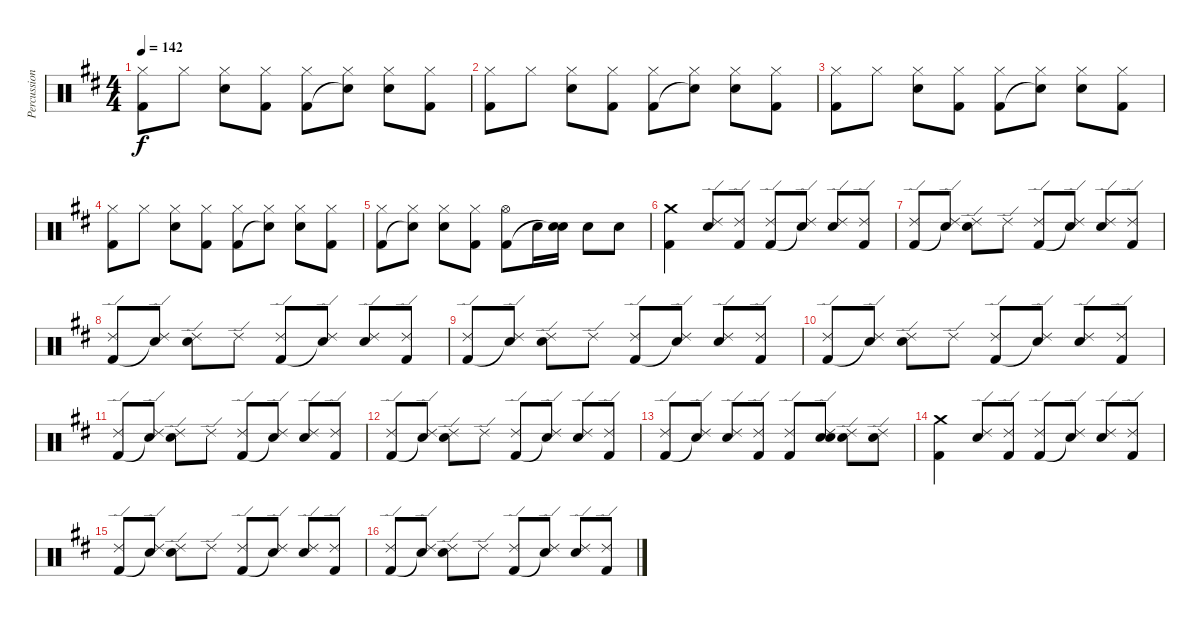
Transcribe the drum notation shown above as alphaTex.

\track ("Percussion" "Percussion") {instrument percussion}
\staff {score}
\articulation defaults
\ts (4 4)
\tempo 142
\clef neutral
\ks d
("Hi-Hat (closed)" "Kick (hit) 2").8{dy f} "Hi-Hat (closed)".8 ("Hi-Hat (closed)" "Snare (hit) 2").8 ("Hi-Hat (closed)" "Kick (hit) 2").8 ("Hi-Hat (closed)" "Kick (hit) 2").8 ("Hi-Hat (closed)" "Snare (hit)"{t}).8 ("Hi-Hat (closed)" "Snare (hit) 2").8 ("Hi-Hat (closed)" "Kick (hit) 2").8 |
("Hi-Hat (closed)" "Kick (hit) 2").8 "Hi-Hat (closed)".8 ("Hi-Hat (closed)" "Snare (hit) 2").8 ("Hi-Hat (closed)" "Kick (hit) 2").8 ("Hi-Hat (closed)" "Kick (hit) 2").8 ("Hi-Hat (closed)" "Snare (hit)"{t}).8 ("Hi-Hat (closed)" "Snare (hit) 2").8 ("Hi-Hat (closed)" "Kick (hit) 2").8 |
("Hi-Hat (closed)" "Kick (hit) 2").8 "Hi-Hat (closed)".8 ("Hi-Hat (closed)" "Snare (hit) 2").8 ("Hi-Hat (closed)" "Kick (hit) 2").8 ("Hi-Hat (closed)" "Kick (hit) 2").8 ("Hi-Hat (closed)" "Snare (hit)"{t}).8 ("Hi-Hat (closed)" "Snare (hit) 2").8 ("Hi-Hat (closed)" "Kick (hit) 2").8 |
("Hi-Hat (closed)" "Kick (hit) 2").8 "Hi-Hat (closed)".8 ("Hi-Hat (closed)" "Snare (hit) 2").8 ("Hi-Hat (closed)" "Kick (hit) 2").8 ("Hi-Hat (closed)" "Kick (hit) 2").8 ("Hi-Hat (closed)" "Snare (hit)"{t}).8 ("Hi-Hat (closed)" "Snare (hit) 2").8 ("Hi-Hat (closed)" "Kick (hit) 2").8 |
("Hi-Hat (closed)" "Kick (hit) 2").8 ("Hi-Hat (closed)" "Snare (hit)"{t}).8 ("Hi-Hat (closed)" "Snare (hit) 2").8 ("Hi-Hat (closed)" "Kick (hit) 2").8 ("Hi-Hat (open)" "Kick (hit) 2").8 "Snare (hit) 2".16 ("Snare (hit) 2" "Snare (hit)"{t}).16 "Snare (hit) 2".8 "Snare (hit) 2".8 |
("Crash medium (hit)" "Kick (hit) 2").4 ("Ride (edge) 2" "Snare (hit) 2").8 ("Ride (edge) 2" "Kick (hit) 2").8 ("Ride (edge) 2" "Kick (hit) 2").8 ("Ride (edge) 2" "Snare (hit)"{t}).8 ("Ride (edge) 2" "Snare (hit) 2").8 ("Ride (edge) 2" "Kick (hit) 2").8 |
("Ride (edge) 2" "Kick (hit) 2").8 ("Ride (edge) 2" "Snare (hit)"{t}).8 ("Ride (edge) 2" "Snare (hit) 2").8 "Ride (edge) 2".8 ("Ride (edge) 2" "Kick (hit) 2").8 ("Ride (edge) 2" "Snare (hit)"{t}).8 ("Ride (edge) 2" "Snare (hit) 2").8 ("Ride (edge) 2" "Kick (hit) 2").8 |
("Ride (edge) 2" "Kick (hit) 2").8 ("Ride (edge) 2" "Snare (hit)"{t}).8 ("Ride (edge) 2" "Snare (hit) 2").8 "Ride (edge) 2".8 ("Ride (edge) 2" "Kick (hit) 2").8 ("Ride (edge) 2" "Snare (hit)"{t}).8 ("Ride (edge) 2" "Snare (hit) 2").8 ("Ride (edge) 2" "Kick (hit) 2").8 |
("Ride (edge) 2" "Kick (hit) 2").8 ("Ride (edge) 2" "Snare (hit)"{t}).8 ("Ride (edge) 2" "Snare (hit) 2").8 "Ride (edge) 2".8 ("Ride (edge) 2" "Kick (hit) 2").8 ("Ride (edge) 2" "Snare (hit)"{t}).8 ("Ride (edge) 2" "Snare (hit) 2").8 ("Ride (edge) 2" "Kick (hit) 2").8 |
("Ride (edge) 2" "Kick (hit) 2").8 ("Ride (edge) 2" "Snare (hit)"{t}).8 ("Ride (edge) 2" "Snare (hit) 2").8 "Ride (edge) 2".8 ("Ride (edge) 2" "Kick (hit) 2").8 ("Ride (edge) 2" "Snare (hit)"{t}).8 ("Ride (edge) 2" "Snare (hit) 2").8 ("Ride (edge) 2" "Kick (hit) 2").8 |
("Ride (edge) 2" "Kick (hit) 2").8 ("Ride (edge) 2" "Snare (hit)"{t}).8 ("Ride (edge) 2" "Snare (hit) 2").8 "Ride (edge) 2".8 ("Ride (edge) 2" "Kick (hit) 2").8 ("Ride (edge) 2" "Snare (hit)"{t}).8 ("Ride (edge) 2" "Snare (hit) 2").8 ("Ride (edge) 2" "Kick (hit) 2").8 |
("Ride (edge) 2" "Kick (hit) 2").8 ("Ride (edge) 2" "Snare (hit)"{t}).8 ("Ride (edge) 2" "Snare (hit) 2").8 "Ride (edge) 2".8 ("Ride (edge) 2" "Kick (hit) 2").8 ("Ride (edge) 2" "Snare (hit)"{t}).8 ("Ride (edge) 2" "Snare (hit) 2").8 ("Ride (edge) 2" "Kick (hit) 2").8 |
("Ride (edge) 2" "Kick (hit) 2").8 ("Ride (edge) 2" "Snare (hit)"{t}).8 ("Ride (edge) 2" "Snare (hit) 2").8 ("Ride (edge) 2" "Kick (hit) 2").8 ("Ride (edge) 2" "Kick (hit) 2").8 ("Ride (edge) 2" "Snare (hit) 2" "Snare (hit)").8 ("Ride (edge) 2" "Snare (hit) 2").8 ("Ride (edge) 2" "Snare (hit) 2").8 |
("Crash medium (hit)" "Kick (hit) 2").4 ("Ride (edge) 2" "Snare (hit) 2").8 ("Ride (edge) 2" "Kick (hit) 2").8 ("Ride (edge) 2" "Kick (hit) 2").8 ("Ride (edge) 2" "Snare (hit)"{t}).8 ("Ride (edge) 2" "Snare (hit) 2").8 ("Ride (edge) 2" "Kick (hit) 2").8 |
("Ride (edge) 2" "Kick (hit) 2").8 ("Ride (edge) 2" "Snare (hit)"{t}).8 ("Ride (edge) 2" "Snare (hit) 2").8 "Ride (edge) 2".8 ("Ride (edge) 2" "Kick (hit) 2").8 ("Ride (edge) 2" "Snare (hit)"{t}).8 ("Ride (edge) 2" "Snare (hit) 2").8 ("Ride (edge) 2" "Kick (hit) 2").8 |
("Ride (edge) 2" "Kick (hit) 2").8 ("Ride (edge) 2" "Snare (hit)"{t}).8 ("Ride (edge) 2" "Snare (hit) 2").8 "Ride (edge) 2".8 ("Ride (edge) 2" "Kick (hit) 2").8 ("Ride (edge) 2" "Snare (hit)"{t}).8 ("Ride (edge) 2" "Snare (hit) 2").8 ("Ride (edge) 2" "Kick (hit) 2").8
